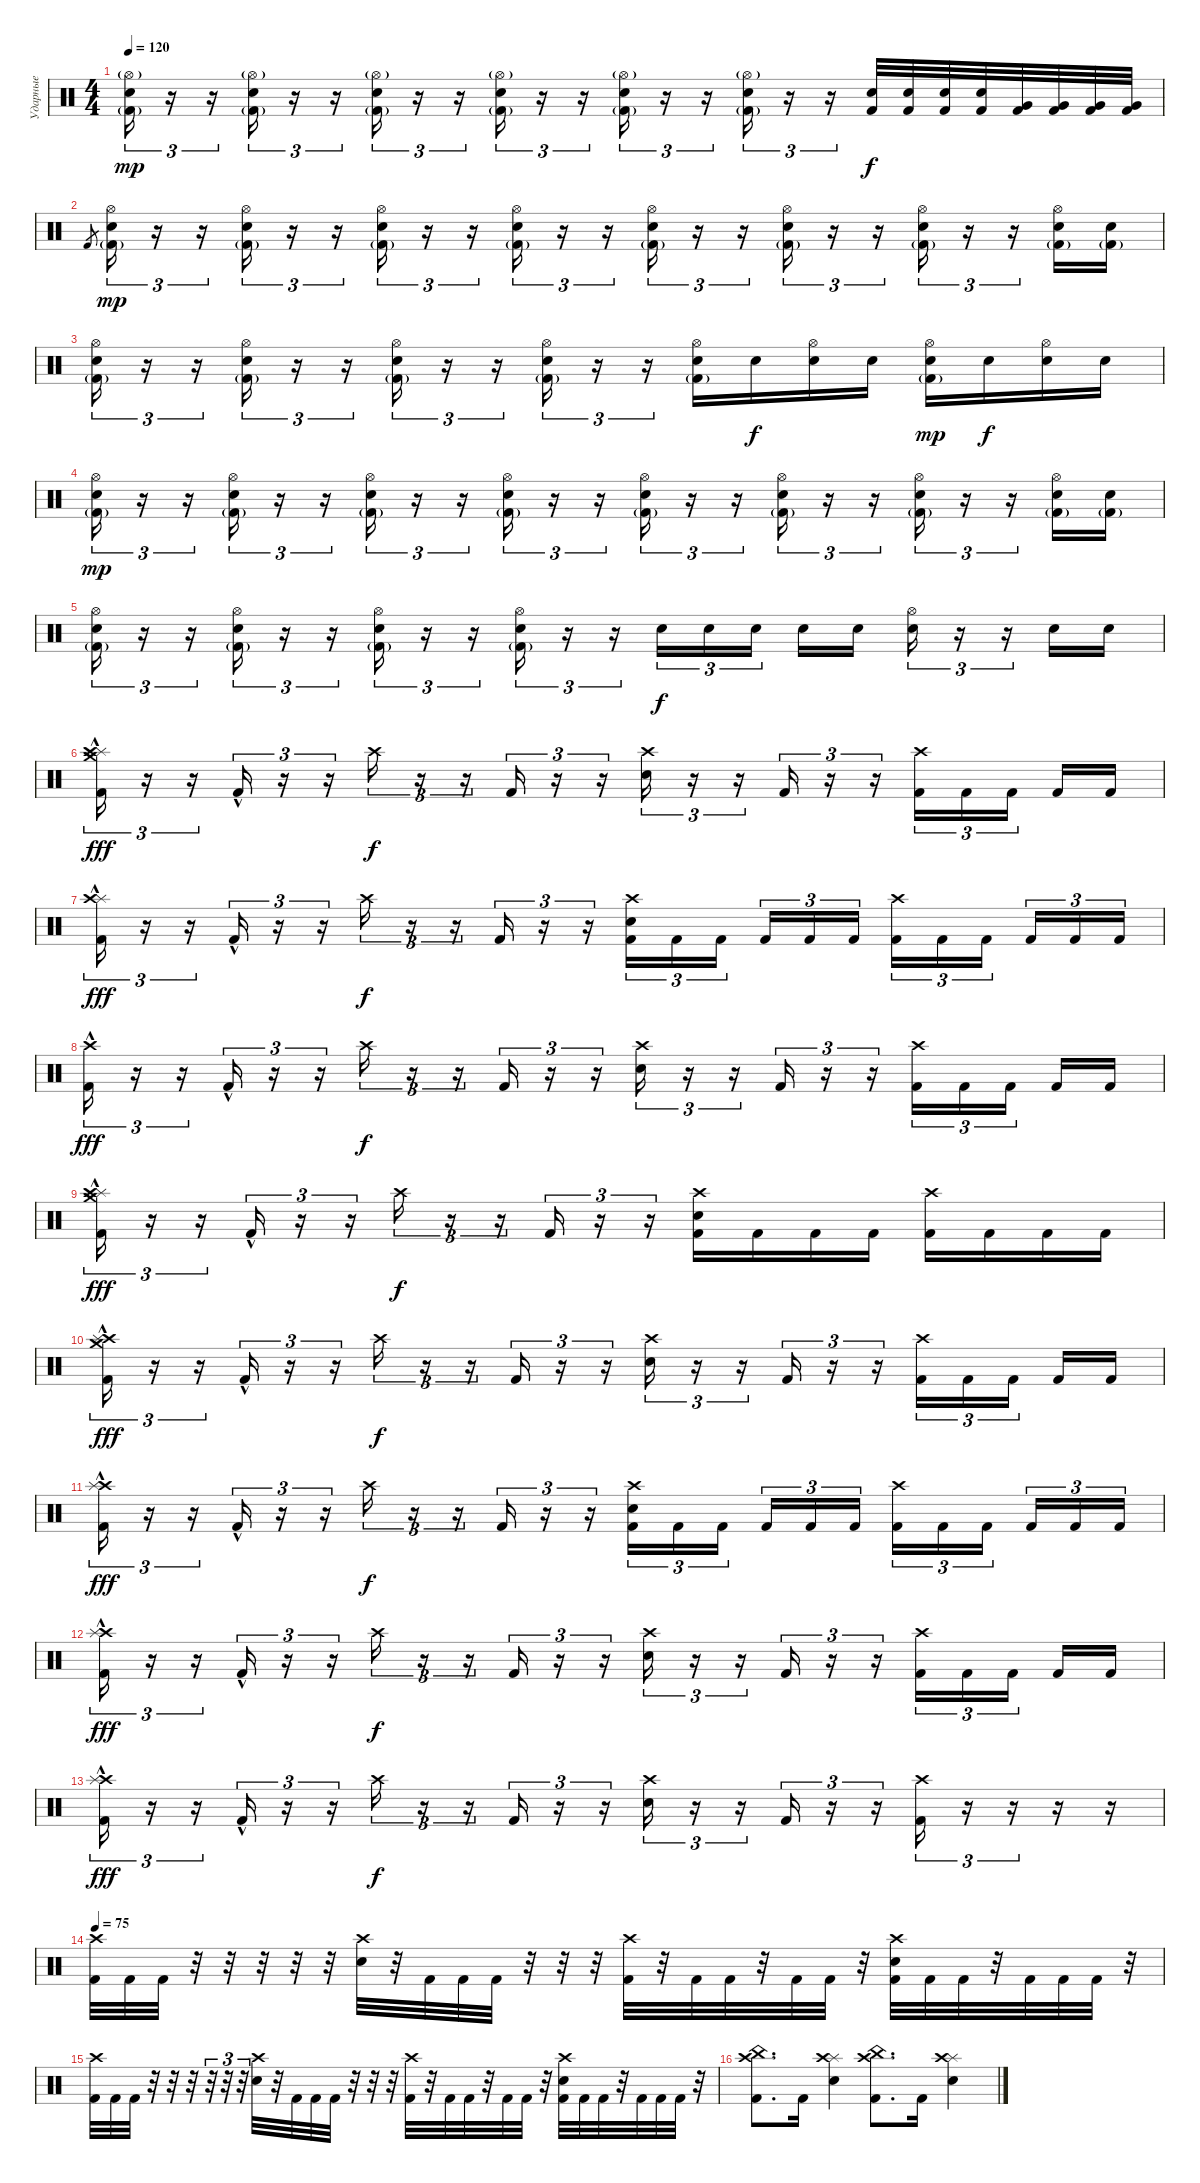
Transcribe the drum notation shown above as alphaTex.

\track ("Ударные" "Ударные") {instrument percussion}
\staff {score}
\articulation defaults
\ts (4 4)
\tempo 120
\clef neutral
\ks c
("Hi-Hat (open)"{g} "Electric Snare (hit)" "Kick (hit) 2"{g}).16{tu (3 2) dy mp} r.16{tu (3 2)} r.16{tu (3 2)} ("Hi-Hat (open)"{g} "Electric Snare (hit)" "Kick (hit) 2"{g}).16{tu (3 2)} r.16{tu (3 2)} r.16{tu (3 2)} ("Hi-Hat (open)"{g} "Electric Snare (hit)" "Kick (hit) 2"{g}).16{tu (3 2)} r.16{tu (3 2)} r.16{tu (3 2)} ("Hi-Hat (open)"{g} "Electric Snare (hit)" "Kick (hit) 2"{g}).16{tu (3 2)} r.16{tu (3 2)} r.16{tu (3 2)} ("Hi-Hat (open)"{g} "Electric Snare (hit)" "Kick (hit) 2"{g}).16{tu (3 2)} r.16{tu (3 2)} r.16{tu (3 2)} ("Hi-Hat (open)"{g} "Electric Snare (hit)" "Kick (hit) 2"{g}).16{tu (3 2)} r.16{tu (3 2)} r.16{tu (3 2)} ("Electric Snare (hit)" "Kick (hit) 2").32{dy f} ("Electric Snare (hit)" "Kick (hit) 2").32 ("Electric Snare (hit)" "Kick (hit) 2").32 ("Electric Snare (hit)" "Kick (hit) 2").32 ("Very Low Tom (hit)" "Kick (hit) 2").32 ("Very Low Tom (hit)" "Kick (hit) 2").32 ("Very Low Tom (hit)" "Kick (hit) 2").32 ("Very Low Tom (hit)" "Kick (hit) 2").32 |
"Kick (hit) 2"{x}.8{gr} ("Hi-Hat (open)" "Electric Snare (hit)" "Kick (hit) 2"{g}).16{tu (3 2) dy mp} r.16{tu (3 2)} r.16{tu (3 2)} ("Hi-Hat (open)" "Electric Snare (hit)" "Kick (hit) 2"{g}).16{tu (3 2)} r.16{tu (3 2)} r.16{tu (3 2)} ("Hi-Hat (open)" "Electric Snare (hit)" "Kick (hit) 2"{g}).16{tu (3 2)} r.16{tu (3 2)} r.16{tu (3 2)} ("Hi-Hat (open)" "Electric Snare (hit)" "Kick (hit) 2"{g}).16{tu (3 2)} r.16{tu (3 2)} r.16{tu (3 2)} ("Hi-Hat (open)" "Electric Snare (hit)" "Kick (hit) 2"{g}).16{tu (3 2)} r.16{tu (3 2)} r.16{tu (3 2)} ("Hi-Hat (open)" "Electric Snare (hit)" "Kick (hit) 2"{g}).16{tu (3 2)} r.16{tu (3 2)} r.16{tu (3 2)} ("Hi-Hat (open)" "Electric Snare (hit)" "Kick (hit) 2"{g}).16{tu (3 2)} r.16{tu (3 2)} r.16{tu (3 2)} ("Hi-Hat (open)" "Electric Snare (hit)" "Kick (hit) 2"{g}).16 ("Electric Snare (hit)" "Kick (hit) 2"{g}).16 |
("Hi-Hat (open)" "Electric Snare (hit)" "Kick (hit) 2"{g}).16{tu (3 2)} r.16{tu (3 2)} r.16{tu (3 2)} ("Hi-Hat (open)" "Electric Snare (hit)" "Kick (hit) 2"{g}).16{tu (3 2)} r.16{tu (3 2)} r.16{tu (3 2)} ("Hi-Hat (open)" "Electric Snare (hit)" "Kick (hit) 2"{g}).16{tu (3 2)} r.16{tu (3 2)} r.16{tu (3 2)} ("Hi-Hat (open)" "Electric Snare (hit)" "Kick (hit) 2"{g}).16{tu (3 2)} r.16{tu (3 2)} r.16{tu (3 2)} ("Hi-Hat (open)" "Electric Snare (hit)" "Kick (hit) 2"{g}).16 "Electric Snare (hit)".16{dy f} ("Hi-Hat (open)" "Electric Snare (hit)").16 "Electric Snare (hit)".16 ("Hi-Hat (open)" "Electric Snare (hit)" "Kick (hit) 2"{g}).16{dy mp} "Electric Snare (hit)".16{dy f} ("Hi-Hat (open)" "Electric Snare (hit)").16 "Electric Snare (hit)".16 |
("Hi-Hat (open)" "Electric Snare (hit)" "Kick (hit) 2"{g}).16{tu (3 2) dy mp} r.16{tu (3 2)} r.16{tu (3 2)} ("Hi-Hat (open)" "Electric Snare (hit)" "Kick (hit) 2"{g}).16{tu (3 2)} r.16{tu (3 2)} r.16{tu (3 2)} ("Hi-Hat (open)" "Electric Snare (hit)" "Kick (hit) 2"{g}).16{tu (3 2)} r.16{tu (3 2)} r.16{tu (3 2)} ("Hi-Hat (open)" "Electric Snare (hit)" "Kick (hit) 2"{g}).16{tu (3 2)} r.16{tu (3 2)} r.16{tu (3 2)} ("Hi-Hat (open)" "Electric Snare (hit)" "Kick (hit) 2"{g}).16{tu (3 2)} r.16{tu (3 2)} r.16{tu (3 2)} ("Hi-Hat (open)" "Electric Snare (hit)" "Kick (hit) 2"{g}).16{tu (3 2)} r.16{tu (3 2)} r.16{tu (3 2)} ("Hi-Hat (open)" "Electric Snare (hit)" "Kick (hit) 2"{g}).16{tu (3 2)} r.16{tu (3 2)} r.16{tu (3 2)} ("Hi-Hat (open)" "Electric Snare (hit)" "Kick (hit) 2"{g}).16 ("Electric Snare (hit)" "Kick (hit) 2"{g}).16 |
("Hi-Hat (open)" "Electric Snare (hit)" "Kick (hit) 2"{g}).16{tu (3 2)} r.16{tu (3 2)} r.16{tu (3 2)} ("Hi-Hat (open)" "Electric Snare (hit)" "Kick (hit) 2"{g}).16{tu (3 2)} r.16{tu (3 2)} r.16{tu (3 2)} ("Hi-Hat (open)" "Electric Snare (hit)" "Kick (hit) 2"{g}).16{tu (3 2)} r.16{tu (3 2)} r.16{tu (3 2)} ("Hi-Hat (open)" "Electric Snare (hit)" "Kick (hit) 2"{g}).16{tu (3 2)} r.16{tu (3 2)} r.16{tu (3 2)} "Electric Snare (hit)".16{tu (3 2) dy f} "Electric Snare (hit)".16{tu (3 2)} "Electric Snare (hit)".16{tu (3 2) beam splitsecondary} "Electric Snare (hit)".16 "Electric Snare (hit)".16 ("Hi-Hat (open)" "Electric Snare (hit)").16{tu (3 2)} r.16{tu (3 2)} r.16{tu (3 2)} "Electric Snare (hit)".16 "Electric Snare (hit)".16 |
("Splash (hit)" "Crash high (hit)" "Crash medium (hit)" "Kick (hit) 2"{hac}).16{tu (3 2) dy fff} r.16{tu (3 2)} r.16{tu (3 2)} "Kick (hit) 2"{hac}.16{tu (3 2)} r.16{tu (3 2)} r.16{tu (3 2)} "Crash high (hit)".16{tu (3 2) dy f} r.16{tu (3 2)} r.16{tu (3 2)} "Kick (hit) 2".16{tu (3 2)} r.16{tu (3 2)} r.16{tu (3 2)} ("Crash high (hit)" "Electric Snare (hit)").16{tu (3 2)} r.16{tu (3 2)} r.16{tu (3 2)} "Kick (hit) 2".16{tu (3 2)} r.16{tu (3 2)} r.16{tu (3 2)} ("Crash high (hit)" "Kick (hit) 2").16{tu (3 2)} "Kick (hit) 2".16{tu (3 2)} "Kick (hit) 2".16{tu (3 2) beam splitsecondary} "Kick (hit) 2".16 "Kick (hit) 2".16 |
("Splash (hit)" "Crash high (hit)" "Kick (hit) 2"{hac}).16{tu (3 2) dy fff} r.16{tu (3 2)} r.16{tu (3 2)} "Kick (hit) 2"{hac}.16{tu (3 2)} r.16{tu (3 2)} r.16{tu (3 2)} "Crash high (hit)".16{tu (3 2) dy f} r.16{tu (3 2)} r.16{tu (3 2)} "Kick (hit) 2".16{tu (3 2)} r.16{tu (3 2)} r.16{tu (3 2)} ("Crash high (hit)" "Electric Snare (hit)" "Kick (hit) 2").16{tu (3 2)} "Kick (hit) 2".16{tu (3 2)} "Kick (hit) 2".16{tu (3 2) beam splitsecondary} "Kick (hit) 2".16{tu (3 2)} "Kick (hit) 2".16{tu (3 2)} "Kick (hit) 2".16{tu (3 2)} ("Crash high (hit)" "Kick (hit) 2").16{tu (3 2)} "Kick (hit) 2".16{tu (3 2)} "Kick (hit) 2".16{tu (3 2) beam splitsecondary} "Kick (hit) 2".16{tu (3 2)} "Kick (hit) 2".16{tu (3 2)} "Kick (hit) 2".16{tu (3 2)} |
("Crash high (hit)" "Kick (hit) 2"{hac}).16{tu (3 2) dy fff} r.16{tu (3 2)} r.16{tu (3 2)} "Kick (hit) 2"{hac}.16{tu (3 2)} r.16{tu (3 2)} r.16{tu (3 2)} "Crash high (hit)".16{tu (3 2) dy f} r.16{tu (3 2)} r.16{tu (3 2)} "Kick (hit) 2".16{tu (3 2)} r.16{tu (3 2)} r.16{tu (3 2)} ("Crash high (hit)" "Electric Snare (hit)").16{tu (3 2)} r.16{tu (3 2)} r.16{tu (3 2)} "Kick (hit) 2".16{tu (3 2)} r.16{tu (3 2)} r.16{tu (3 2)} ("Crash high (hit)" "Kick (hit) 2").16{tu (3 2)} "Kick (hit) 2".16{tu (3 2)} "Kick (hit) 2".16{tu (3 2) beam splitsecondary} "Kick (hit) 2".16 "Kick (hit) 2".16 |
("Splash (hit)" "Crash high (hit)" "Crash medium (hit)" "Kick (hit) 2"{hac}).16{tu (3 2) dy fff} r.16{tu (3 2)} r.16{tu (3 2)} "Kick (hit) 2"{hac}.16{tu (3 2)} r.16{tu (3 2)} r.16{tu (3 2)} "Crash high (hit)".16{tu (3 2) dy f} r.16{tu (3 2)} r.16{tu (3 2)} "Kick (hit) 2".16{tu (3 2)} r.16{tu (3 2)} r.16{tu (3 2)} ("Crash high (hit)" "Electric Snare (hit)" "Kick (hit) 2").16 "Kick (hit) 2".16 "Kick (hit) 2".16 "Kick (hit) 2".16 ("Crash high (hit)" "Kick (hit) 2").16 "Kick (hit) 2".16 "Kick (hit) 2".16 "Kick (hit) 2".16 |
("Crash high (hit)" "Splash (hit)" "Crash medium (hit)" "Kick (hit) 2"{hac}).16{tu (3 2) dy fff} r.16{tu (3 2)} r.16{tu (3 2)} "Kick (hit) 2"{hac}.16{tu (3 2)} r.16{tu (3 2)} r.16{tu (3 2)} "Crash high (hit)".16{tu (3 2) dy f} r.16{tu (3 2)} r.16{tu (3 2)} "Kick (hit) 2".16{tu (3 2)} r.16{tu (3 2)} r.16{tu (3 2)} ("Crash high (hit)" "Electric Snare (hit)").16{tu (3 2)} r.16{tu (3 2)} r.16{tu (3 2)} "Kick (hit) 2".16{tu (3 2)} r.16{tu (3 2)} r.16{tu (3 2)} ("Crash high (hit)" "Kick (hit) 2").16{tu (3 2)} "Kick (hit) 2".16{tu (3 2)} "Kick (hit) 2".16{tu (3 2) beam splitsecondary} "Kick (hit) 2".16 "Kick (hit) 2".16 |
("Crash high (hit)" "Splash (hit)" "Kick (hit) 2"{hac}).16{tu (3 2) dy fff} r.16{tu (3 2)} r.16{tu (3 2)} "Kick (hit) 2"{hac}.16{tu (3 2)} r.16{tu (3 2)} r.16{tu (3 2)} "Crash high (hit)".16{tu (3 2) dy f} r.16{tu (3 2)} r.16{tu (3 2)} "Kick (hit) 2".16{tu (3 2)} r.16{tu (3 2)} r.16{tu (3 2)} ("Crash high (hit)" "Electric Snare (hit)" "Kick (hit) 2").16{tu (3 2)} "Kick (hit) 2".16{tu (3 2)} "Kick (hit) 2".16{tu (3 2) beam splitsecondary} "Kick (hit) 2".16{tu (3 2)} "Kick (hit) 2".16{tu (3 2)} "Kick (hit) 2".16{tu (3 2)} ("Crash high (hit)" "Kick (hit) 2").16{tu (3 2)} "Kick (hit) 2".16{tu (3 2)} "Kick (hit) 2".16{tu (3 2) beam splitsecondary} "Kick (hit) 2".16{tu (3 2)} "Kick (hit) 2".16{tu (3 2)} "Kick (hit) 2".16{tu (3 2)} |
("Crash high (hit)" "Splash (hit)" "Kick (hit) 2"{hac}).16{tu (3 2) dy fff} r.16{tu (3 2)} r.16{tu (3 2)} "Kick (hit) 2"{hac}.16{tu (3 2)} r.16{tu (3 2)} r.16{tu (3 2)} "Crash high (hit)".16{tu (3 2) dy f} r.16{tu (3 2)} r.16{tu (3 2)} "Kick (hit) 2".16{tu (3 2)} r.16{tu (3 2)} r.16{tu (3 2)} ("Crash high (hit)" "Electric Snare (hit)").16{tu (3 2)} r.16{tu (3 2)} r.16{tu (3 2)} "Kick (hit) 2".16{tu (3 2)} r.16{tu (3 2)} r.16{tu (3 2)} ("Crash high (hit)" "Kick (hit) 2").16{tu (3 2)} "Kick (hit) 2".16{tu (3 2)} "Kick (hit) 2".16{tu (3 2) beam splitsecondary} "Kick (hit) 2".16 "Kick (hit) 2".16 |
("Crash high (hit)" "Splash (hit)" "Kick (hit) 2"{hac}).16{tu (3 2) dy fff} r.16{tu (3 2)} r.16{tu (3 2)} "Kick (hit) 2"{hac}.16{tu (3 2)} r.16{tu (3 2)} r.16{tu (3 2)} "Crash high (hit)".16{tu (3 2) dy f} r.16{tu (3 2)} r.16{tu (3 2)} "Kick (hit) 2".16{tu (3 2)} r.16{tu (3 2)} r.16{tu (3 2)} ("Crash high (hit)" "Electric Snare (hit)").16{tu (3 2)} r.16{tu (3 2)} r.16{tu (3 2)} "Kick (hit) 2".16{tu (3 2)} r.16{tu (3 2)} r.16{tu (3 2)} ("Crash high (hit)" "Kick (hit) 2").16{tu (3 2)} r.16{tu (3 2)} r.16{tu (3 2)} r.16 r.16 |
\tempo 75
("Crash high (hit)" "Kick (hit) 2").32 "Kick (hit) 2".32 "Kick (hit) 2".32 r.32 r.32 r.32 r.32 r.32 ("Crash high (hit)" "Electric Snare (hit)").32 r.32 "Kick (hit) 2".32 "Kick (hit) 2".32 "Kick (hit) 2".32 r.32 r.32 r.32 ("Crash high (hit)" "Kick (hit) 2").32 r.32 "Kick (hit) 2".32 "Kick (hit) 2".32 r.32 "Kick (hit) 2".32 "Kick (hit) 2".32 r.32 ("Crash high (hit)" "Electric Snare (hit)" "Kick (hit) 2").32 "Kick (hit) 2".32 "Kick (hit) 2".32 r.32 "Kick (hit) 2".32 "Kick (hit) 2".32 "Kick (hit) 2".32 r.32 |
("Crash high (hit)" "Kick (hit) 2").32 "Kick (hit) 2".32 "Kick (hit) 2".32 r.32 r.32 r.32 r.32{tu (3 2)} r.32{tu (3 2)} r.32{tu (3 2)} ("Crash high (hit)" "Electric Snare (hit)").32 r.32 "Kick (hit) 2".32 "Kick (hit) 2".32 "Kick (hit) 2".32 r.32 r.32 r.32 ("Crash high (hit)" "Kick (hit) 2").32 r.32 "Kick (hit) 2".32 "Kick (hit) 2".32 r.32 "Kick (hit) 2".32 "Kick (hit) 2".32 r.32 ("Crash high (hit)" "Electric Snare (hit)" "Kick (hit) 2").32 "Kick (hit) 2".32 "Kick (hit) 2".32 r.32 "Kick (hit) 2".32 "Kick (hit) 2".32 "Kick (hit) 2".32 r.32 |
("Crash high (hit)" "China (hit)" "Kick (hit) 2").8{d} "Kick (hit) 2".16 ("Splash (hit)" "Crash high (hit)" "Electric Snare (hit)").4 ("China (hit)" "Crash high (hit)" "Kick (hit) 2").8{d} "Kick (hit) 2".16 ("Splash (hit)" "Crash high (hit)" "Electric Snare (hit)").4
